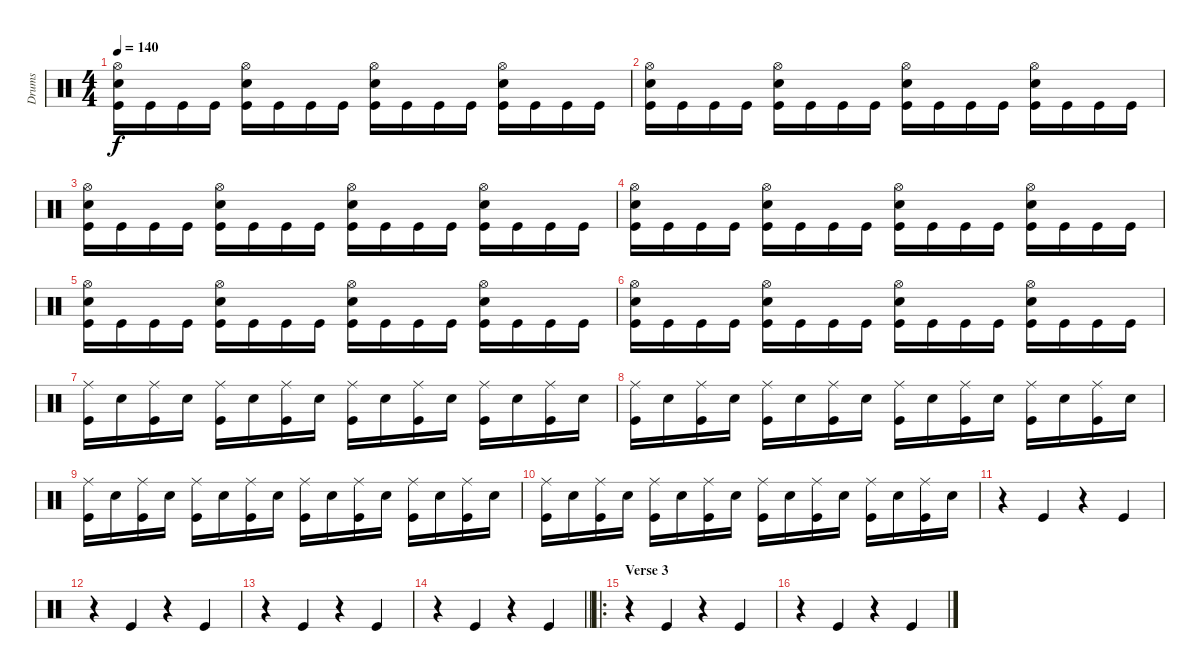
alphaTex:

\track ("Drums" "Drums") {instrument percussion}
\staff {score}
\articulation defaults
\ts (4 4)
\tempo 140
\clef neutral
\ks c
("Hi-Hat (open)" "Snare (hit) 2" "Kick (hit)").16{dy f} "Kick (hit)".16 "Kick (hit)".16 "Kick (hit)".16 ("Hi-Hat (open)" "Snare (hit) 2" "Kick (hit)").16 "Kick (hit)".16 "Kick (hit)".16 "Kick (hit)".16 ("Hi-Hat (open)" "Snare (hit) 2" "Kick (hit)").16 "Kick (hit)".16 "Kick (hit)".16 "Kick (hit)".16 ("Hi-Hat (open)" "Snare (hit) 2" "Kick (hit)").16 "Kick (hit)".16 "Kick (hit)".16 "Kick (hit)".16 |
("Hi-Hat (open)" "Snare (hit) 2" "Kick (hit)").16 "Kick (hit)".16 "Kick (hit)".16 "Kick (hit)".16 ("Hi-Hat (open)" "Snare (hit) 2" "Kick (hit)").16 "Kick (hit)".16 "Kick (hit)".16 "Kick (hit)".16 ("Hi-Hat (open)" "Snare (hit) 2" "Kick (hit)").16 "Kick (hit)".16 "Kick (hit)".16 "Kick (hit)".16 ("Hi-Hat (open)" "Snare (hit) 2" "Kick (hit)").16 "Kick (hit)".16 "Kick (hit)".16 "Kick (hit)".16 |
("Hi-Hat (open)" "Snare (hit) 2" "Kick (hit)").16 "Kick (hit)".16 "Kick (hit)".16 "Kick (hit)".16 ("Hi-Hat (open)" "Snare (hit) 2" "Kick (hit)").16 "Kick (hit)".16 "Kick (hit)".16 "Kick (hit)".16 ("Hi-Hat (open)" "Snare (hit) 2" "Kick (hit)").16 "Kick (hit)".16 "Kick (hit)".16 "Kick (hit)".16 ("Hi-Hat (open)" "Snare (hit) 2" "Kick (hit)").16 "Kick (hit)".16 "Kick (hit)".16 "Kick (hit)".16 |
("Hi-Hat (open)" "Snare (hit) 2" "Kick (hit)").16 "Kick (hit)".16 "Kick (hit)".16 "Kick (hit)".16 ("Hi-Hat (open)" "Snare (hit) 2" "Kick (hit)").16 "Kick (hit)".16 "Kick (hit)".16 "Kick (hit)".16 ("Hi-Hat (open)" "Snare (hit) 2" "Kick (hit)").16 "Kick (hit)".16 "Kick (hit)".16 "Kick (hit)".16 ("Hi-Hat (open)" "Snare (hit) 2" "Kick (hit)").16 "Kick (hit)".16 "Kick (hit)".16 "Kick (hit)".16 |
("Hi-Hat (open)" "Snare (hit) 2" "Kick (hit)").16 "Kick (hit)".16 "Kick (hit)".16 "Kick (hit)".16 ("Hi-Hat (open)" "Snare (hit) 2" "Kick (hit)").16 "Kick (hit)".16 "Kick (hit)".16 "Kick (hit)".16 ("Hi-Hat (open)" "Snare (hit) 2" "Kick (hit)").16 "Kick (hit)".16 "Kick (hit)".16 "Kick (hit)".16 ("Hi-Hat (open)" "Snare (hit) 2" "Kick (hit)").16 "Kick (hit)".16 "Kick (hit)".16 "Kick (hit)".16 |
("Hi-Hat (open)" "Snare (hit) 2" "Kick (hit)").16 "Kick (hit)".16 "Kick (hit)".16 "Kick (hit)".16 ("Hi-Hat (open)" "Snare (hit) 2" "Kick (hit)").16 "Kick (hit)".16 "Kick (hit)".16 "Kick (hit)".16 ("Hi-Hat (open)" "Snare (hit) 2" "Kick (hit)").16 "Kick (hit)".16 "Kick (hit)".16 "Kick (hit)".16 ("Hi-Hat (open)" "Snare (hit) 2" "Kick (hit)").16 "Kick (hit)".16 "Kick (hit)".16 "Kick (hit)".16 |
("Ride (middle)" "Kick (hit)").16 "Snare (hit) 2".16 ("Ride (middle)" "Kick (hit)").16 "Snare (hit) 2".16 ("Ride (middle)" "Kick (hit)").16 "Snare (hit) 2".16 ("Ride (middle)" "Kick (hit)").16 "Snare (hit) 2".16 ("Ride (middle)" "Kick (hit)").16 "Snare (hit) 2".16 ("Ride (middle)" "Kick (hit)").16 "Snare (hit) 2".16 ("Ride (middle)" "Kick (hit)").16 "Snare (hit) 2".16 ("Ride (middle)" "Kick (hit)").16 "Snare (hit) 2".16 |
("Ride (middle)" "Kick (hit)").16 "Snare (hit) 2".16 ("Ride (middle)" "Kick (hit)").16 "Snare (hit) 2".16 ("Ride (middle)" "Kick (hit)").16 "Snare (hit) 2".16 ("Ride (middle)" "Kick (hit)").16 "Snare (hit) 2".16 ("Ride (middle)" "Kick (hit)").16 "Snare (hit) 2".16 ("Ride (middle)" "Kick (hit)").16 "Snare (hit) 2".16 ("Ride (middle)" "Kick (hit)").16 "Snare (hit) 2".16 ("Ride (middle)" "Kick (hit)").16 "Snare (hit) 2".16 |
("Ride (middle)" "Kick (hit)").16 "Snare (hit) 2".16 ("Ride (middle)" "Kick (hit)").16 "Snare (hit) 2".16 ("Ride (middle)" "Kick (hit)").16 "Snare (hit) 2".16 ("Ride (middle)" "Kick (hit)").16 "Snare (hit) 2".16 ("Ride (middle)" "Kick (hit)").16 "Snare (hit) 2".16 ("Ride (middle)" "Kick (hit)").16 "Snare (hit) 2".16 ("Ride (middle)" "Kick (hit)").16 "Snare (hit) 2".16 ("Ride (middle)" "Kick (hit)").16 "Snare (hit) 2".16 |
("Ride (middle)" "Kick (hit)").16 "Snare (hit) 2".16 ("Ride (middle)" "Kick (hit)").16 "Snare (hit) 2".16 ("Ride (middle)" "Kick (hit)").16 "Snare (hit) 2".16 ("Ride (middle)" "Kick (hit)").16 "Snare (hit) 2".16 ("Ride (middle)" "Kick (hit)").16 "Snare (hit) 2".16 ("Ride (middle)" "Kick (hit)").16 "Snare (hit) 2".16 ("Ride (middle)" "Kick (hit)").16 "Snare (hit) 2".16 ("Ride (middle)" "Kick (hit)").16 "Snare (hit) 2".16 |
r.4 "Kick (hit)".4 r.4 "Kick (hit)".4 |
r.4 "Kick (hit)".4 r.4 "Kick (hit)".4 |
r.4 "Kick (hit)".4 r.4 "Kick (hit)".4 |
\barLineRight lightlight
r.4 "Kick (hit)".4 r.4 "Kick (hit)".4 |
\ro
\section ("" "Verse 3")
r.4 "Kick (hit)".4 r.4 "Kick (hit)".4 |
r.4 "Kick (hit)".4 r.4 "Kick (hit)".4
